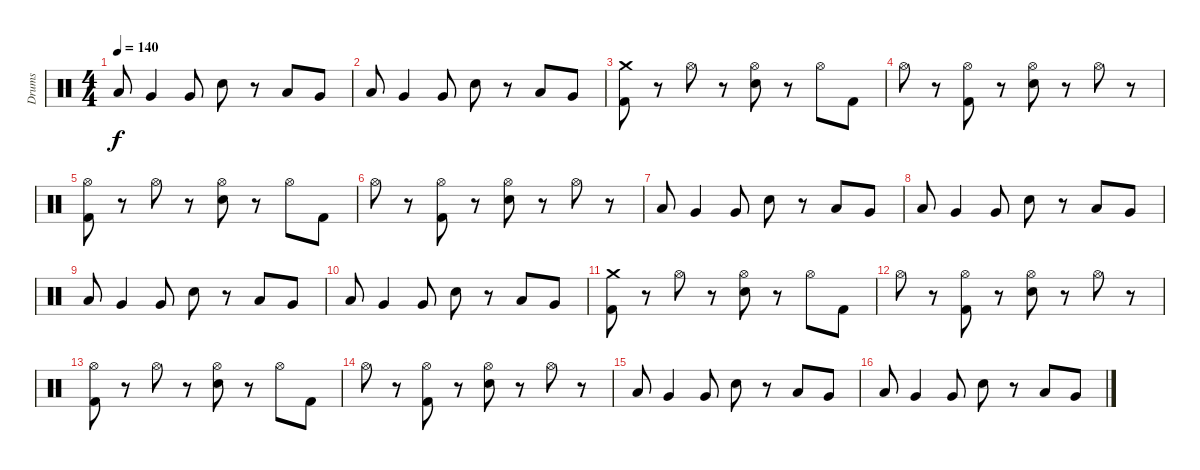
\track ("Drums" "Drums") {instrument percussion}
\staff {score}
\articulation defaults
\ts (4 4)
\tempo 140
\clef neutral
\ks c "Low Tom (hit)".8{dy f} "Very Low Tom (hit)".4 "Very Low Tom (hit)".8 "Electric Snare (hit)".8
r.8 "Low Tom (hit)".8 "Very Low Tom (hit)".8 |
"Low Tom (hit)".8 "Very Low Tom (hit)".4 "Very Low Tom (hit)".8 "Electric Snare (hit)".8 r.8 "Low Tom (hit)".8 "Very Low Tom (hit)".8 |
("Crash medium (hit)" "Kick (hit) 2").8 r.8 "Hi-Hat (open)".8 r.8 ("Hi-Hat (open)" "Electric Snare (hit)").8 r.8 "Hi-Hat (open)".8 "Kick (hit) 2".8 |
"Hi-Hat (open)".8 r.8 ("Hi-Hat (open)" "Kick (hit) 2").8 r.8 ("Hi-Hat (open)" "Electric Snare (hit)").8 r.8 "Hi-Hat (open)".8 r.8 |
("Hi-Hat (open)" "Kick (hit) 2").8 r.8 "Hi-Hat (open)".8 r.8 ("Hi-Hat (open)" "Electric Snare (hit)").8 r.8 "Hi-Hat (open)".8 "Kick (hit) 2".8 |
"Hi-Hat (open)".8 r.8 ("Hi-Hat (open)" "Kick (hit) 2").8 r.8 ("Hi-Hat (open)" "Electric Snare (hit)").8 r.8 "Hi-Hat (open)".8 r.8 |
"Low Tom (hit)".8 "Very Low Tom (hit)".4 "Very Low Tom (hit)".8 "Electric Snare (hit)".8 r.8 "Low Tom (hit)".8 "Very Low Tom (hit)".8 |
"Low Tom (hit)".8 "Very Low Tom (hit)".4 "Very Low Tom (hit)".8 "Electric Snare (hit)".8 r.8 "Low Tom (hit)".8 "Very Low Tom (hit)".8 |
"Low Tom (hit)".8 "Very Low Tom (hit)".4 "Very Low Tom (hit)".8 "Electric Snare (hit)".8 r.8 "Low Tom (hit)".8 "Very Low Tom (hit)".8 |
"Low Tom (hit)".8 "Very Low Tom (hit)".4 "Very Low Tom (hit)".8 "Electric Snare (hit)".8 r.8 "Low Tom (hit)".8 "Very Low Tom (hit)".8 |
("Crash medium (hit)" "Kick (hit) 2").8 r.8 "Hi-Hat (open)".8 r.8 ("Hi-Hat (open)" "Electric Snare (hit)").8 r.8 "Hi-Hat (open)".8 "Kick (hit) 2".8 |
"Hi-Hat (open)".8 r.8 ("Hi-Hat (open)" "Kick (hit) 2").8 r.8 ("Hi-Hat (open)" "Electric Snare (hit)").8 r.8 "Hi-Hat (open)".8 r.8 |
("Hi-Hat (open)" "Kick (hit) 2").8 r.8 "Hi-Hat (open)".8 r.8 ("Hi-Hat (open)" "Electric Snare (hit)").8 r.8 "Hi-Hat (open)".8 "Kick (hit) 2".8 |
"Hi-Hat (open)".8 r.8 ("Hi-Hat (open)" "Kick (hit) 2").8 r.8 ("Hi-Hat (open)" "Electric Snare (hit)").8 r.8 "Hi-Hat (open)".8 r.8 |
"Low Tom (hit)".8 "Very Low Tom (hit)".4 "Very Low Tom (hit)".8 "Electric Snare (hit)".8 r.8 "Low Tom (hit)".8 "Very Low Tom (hit)".8 |
"Low Tom (hit)".8 "Very Low Tom (hit)".4 "Very Low Tom (hit)".8 "Electric Snare (hit)".8 r.8 "Low Tom (hit)".8 "Very Low Tom (hit)".8
